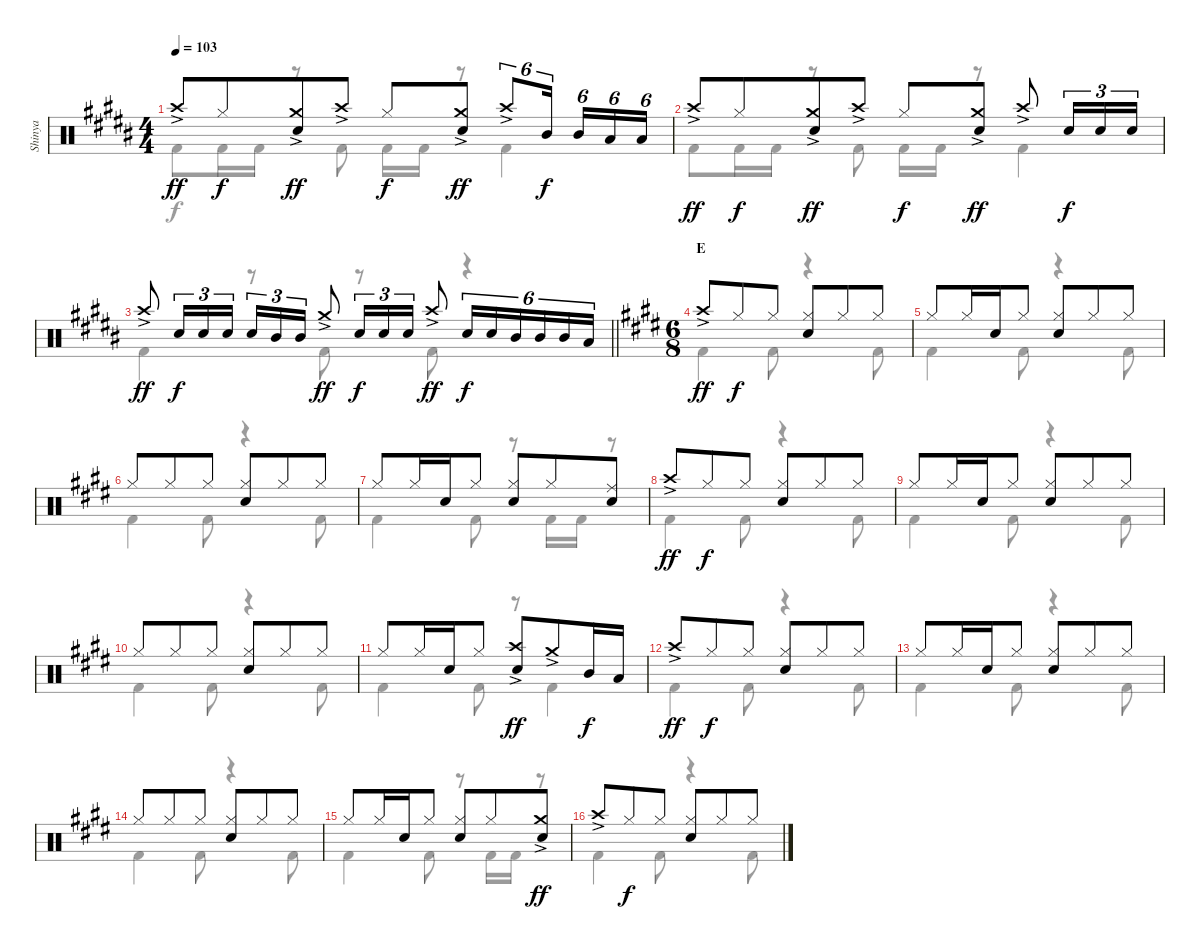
\track ("Shinya" "Shinya") {instrument percussion}
\staff {score}
\articulation defaults
\voice
\ts (4 4)
\tempo 103
\clef neutral
\ks g#minor "Crash high (hit)"{ac}.8{dy ff} "Hi-Hat (closed)".8{dy f beam merge}
("Crash medium (hit)"{ac} "Snare (hit) 2").8{dy ff} "Crash high (hit)"{ac}.8 "Hi-Hat (closed)".8{dy f} ("Crash medium (hit)"{ac} "Snare (hit) 2").8{dy ff} "Crash high (hit)"{ac}.8{tu (6 4)} "Mid Tom (hit)".16{tu (6 4) dy f beam splitsecondary} "Mid Tom (hit)".16{tu (6 4)} "Low Tom (hit)".16{tu (6 4)} "Low Tom (hit)".16{tu (6 4)} |
"Crash high (hit)"{ac}.8{dy ff} "Hi-Hat (closed)".8{dy f beam merge} ("Crash medium (hit)"{ac} "Snare (hit) 2").8{dy ff} "Crash high (hit)"{ac}.8 "Hi-Hat (closed)".8{dy f} ("Crash medium (hit)"{ac} "Snare (hit) 2").8{dy ff} "Crash high (hit)"{ac}.8 "Snare (hit) 2".16{tu (3 2) dy f} "Snare (hit) 2".16{tu (3 2)} "Snare (hit) 2".16{tu (3 2)} |
\barLineRight lightlight "Crash high (hit)"{ac}.8{dy ff} "Snare (hit) 2".16{tu (3 2) dy f} "Snare (hit) 2".16{tu (3 2)} "Snare (hit) 2".16{tu (3 2)} "Snare (hit) 2".16{tu (3 2)} "Mid Tom (hit)".16{tu (3 2)} "Mid Tom (hit)".16{tu (3 2)} "Crash medium (hit)"{ac}.8{dy ff} "Snare (hit) 2".16{tu (3 2) dy f} "Snare (hit) 2".16{tu (3 2)} "Snare (hit) 2".16{tu (3 2)} "Crash high (hit)"{ac}.8{dy ff} "Snare (hit) 2".16{tu (6 4) dy f} "Snare (hit) 2".16{tu (6 4)} "Mid Tom (hit)".16{tu (6 4)} "Mid Tom (hit)".16{tu (6 4)} "Mid Tom (hit)".16{tu (6 4)} "Low Tom (hit)".16{tu (6 4)}
|
\ts (6 8)
\section ("" "E")
\ks c#minor "Crash high (hit)"{ac}.8{dy ff} "Hi-Hat (closed)".8{dy f} "Hi-Hat (closed)".8
("Hi-Hat (closed)" "Snare (hit) 2").8 "Hi-Hat (closed)".8 "Hi-Hat (closed)".8 |
"Hi-Hat (closed)".8 "Hi-Hat (closed)".16 "Snare (hit) 2".16 "Hi-Hat (closed)".8 ("Hi-Hat (closed)" "Snare (hit) 2").8 "Hi-Hat (closed)".8 "Hi-Hat (closed)".8 |
"Hi-Hat (closed)".8 "Hi-Hat (closed)".8 "Hi-Hat (closed)".8 ("Hi-Hat (closed)" "Snare (hit) 2").8 "Hi-Hat (closed)".8 "Hi-Hat (closed)".8 |
"Hi-Hat (closed)".8 "Hi-Hat (closed)".16 "Snare (hit) 2".16 "Hi-Hat (closed)".8 ("Hi-Hat (closed)" "Snare (hit) 2").8 "Hi-Hat (closed)".8 ("Ride (middle)" "Snare (hit) 2").8 |
"Crash high (hit)"{ac}.8{dy ff} "Hi-Hat (closed)".8{dy f} "Hi-Hat (closed)".8 ("Hi-Hat (closed)" "Snare (hit) 2").8 "Hi-Hat (closed)".8 "Hi-Hat (closed)".8 |
"Hi-Hat (closed)".8 "Hi-Hat (closed)".16 "Snare (hit) 2".16 "Hi-Hat (closed)".8 ("Hi-Hat (closed)" "Snare (hit) 2").8 "Hi-Hat (closed)".8 "Hi-Hat (closed)".8 |
"Hi-Hat (closed)".8 "Hi-Hat (closed)".8 "Hi-Hat (closed)".8 ("Hi-Hat (closed)" "Snare (hit) 2").8 "Hi-Hat (closed)".8 "Hi-Hat (closed)".8 |
"Hi-Hat (closed)".8 "Hi-Hat (closed)".16 "Snare (hit) 2".16 "Hi-Hat (closed)".8 ("Crash high (hit)"{ac} "Snare (hit) 2").8{dy ff} "Crash medium (hit)"{ac}.8 "Mid Tom (hit)".16{dy f} "Low Tom (hit)".16 |
"Crash high (hit)"{ac}.8{dy ff} "Hi-Hat (closed)".8{dy f} "Hi-Hat (closed)".8 ("Hi-Hat (closed)" "Snare (hit) 2").8 "Hi-Hat (closed)".8 "Hi-Hat (closed)".8 |
"Hi-Hat (closed)".8 "Hi-Hat (closed)".16 "Snare (hit) 2".16 "Hi-Hat (closed)".8 ("Hi-Hat (closed)" "Snare (hit) 2").8 "Hi-Hat (closed)".8 "Hi-Hat (closed)".8 |
"Hi-Hat (closed)".8 "Hi-Hat (closed)".8 "Hi-Hat (closed)".8 ("Hi-Hat (closed)" "Snare (hit) 2").8 "Hi-Hat (closed)".8 "Hi-Hat (closed)".8 |
"Hi-Hat (closed)".8 "Hi-Hat (closed)".16 "Snare (hit) 2".16 "Hi-Hat (closed)".8 ("Hi-Hat (closed)" "Snare (hit) 2").8 "Hi-Hat (closed)".8 ("Crash medium (hit)"{ac} "Snare (hit) 2").8{dy ff} |
"Crash high (hit)"{ac}.8 "Hi-Hat (closed)".8{dy f} "Hi-Hat (closed)".8 ("Hi-Hat (closed)" "Snare (hit) 2").8 "Hi-Hat (closed)".8 "Hi-Hat (closed)".8
\voice
\clef neutral
\ottava regular
\simile none
\ks g#minor "Kick (hit) 2".8{dy f} "Kick (hit) 2".16 "Kick (hit) 2".16
r.8 "Kick (hit) 2".8 "Kick (hit) 2".16 "Kick (hit) 2".16 r.8 "Kick (hit) 2".4 |
"Kick (hit) 2".8 "Kick (hit) 2".16 "Kick (hit) 2".16 r.8 "Kick (hit) 2".8 "Kick (hit) 2".16 "Kick (hit) 2".16 r.8 "Kick (hit) 2".4 |
\barLineRight lightlight "Kick (hit) 2".4
r.8 "Kick (hit) 2".8 r.8 "Kick (hit) 2".8 r.4 |
\ks c#minor "Kick (hit) 2".4 "Kick (hit) 2".8
r.4 "Kick (hit) 2".8 |
"Kick (hit) 2".4 "Kick (hit) 2".8 r.4 "Kick (hit) 2".8 |
"Kick (hit) 2".4 "Kick (hit) 2".8 r.4 "Kick (hit) 2".8 |
"Kick (hit) 2".4 "Kick (hit) 2".8 r.8 "Kick (hit) 2".16 "Kick (hit) 2".16 r.8 |
"Kick (hit) 2".4 "Kick (hit) 2".8 r.4 "Kick (hit) 2".8 |
"Kick (hit) 2".4 "Kick (hit) 2".8 r.4 "Kick (hit) 2".8 |
"Kick (hit) 2".4 "Kick (hit) 2".8 r.4 "Kick (hit) 2".8 |
"Kick (hit) 2".4 "Kick (hit) 2".8 r.8 "Kick (hit) 2".4 |
"Kick (hit) 2".4 "Kick (hit) 2".8 r.4 "Kick (hit) 2".8 |
"Kick (hit) 2".4 "Kick (hit) 2".8 r.4 "Kick (hit) 2".8 |
"Kick (hit) 2".4 "Kick (hit) 2".8 r.4 "Kick (hit) 2".8 |
"Kick (hit) 2".4 "Kick (hit) 2".8 r.8 "Kick (hit) 2".16 "Kick (hit) 2".16 r.8 |
"Kick (hit) 2".4 "Kick (hit) 2".8 r.4 "Kick (hit) 2".8
